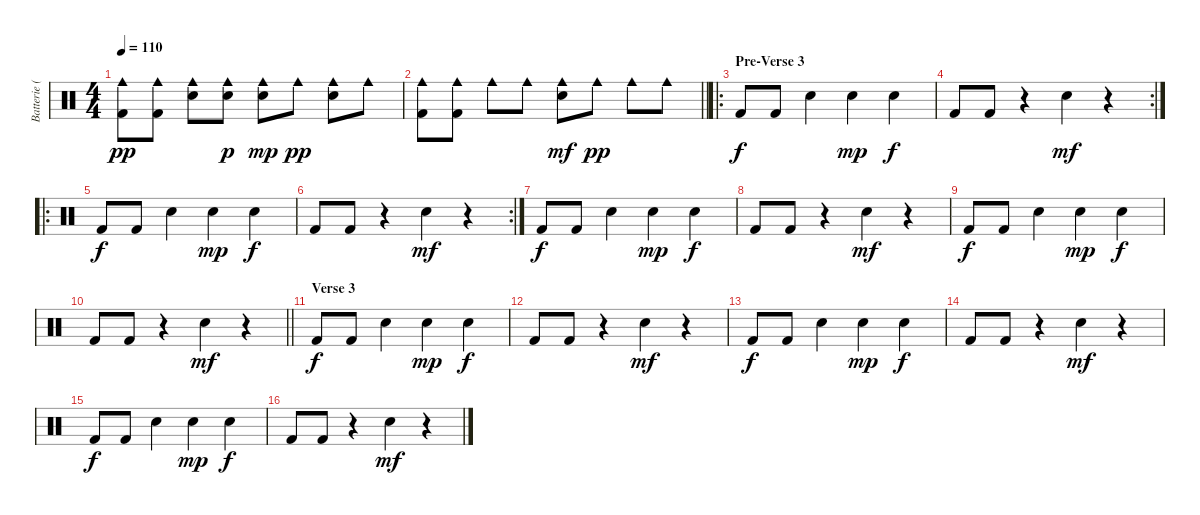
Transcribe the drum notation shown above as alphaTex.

\track ("Batterie (Fanny)" "Batterie (") {instrument percussion}
\staff {score}
\articulation defaults
\ts (4 4)
\tempo 110
\clef neutral
\ks c
("Cowbell medium (hit)" "Kick (hit) 2").8{dy pp} ("Cowbell medium (hit)" "Kick (hit) 2").8 ("Cowbell medium (hit)" "Snare (hit) 2").8 ("Cowbell medium (hit)" "Snare (hit) 2").8{dy p} ("Cowbell medium (hit)" "Snare (hit) 2").8{dy mp} "Cowbell medium (hit)".8{dy pp} ("Cowbell medium (hit)" "Snare (hit) 2").8 "Cowbell medium (hit)".8 |
\barLineRight lightlight
("Cowbell medium (hit)" "Kick (hit) 2").8 ("Cowbell medium (hit)" "Kick (hit) 2").8 "Cowbell medium (hit)".8 "Cowbell medium (hit)".8 ("Cowbell medium (hit)" "Snare (hit) 2").8{dy mf} "Cowbell medium (hit)".8{dy pp} "Cowbell medium (hit)".8 "Cowbell medium (hit)".8 |
\ro
\section ("" "Pre-Verse 3")
"Kick (hit) 2".8{dy f} "Kick (hit) 2".8 "Snare (hit) 2".4 "Snare (hit) 2".4{dy mp} "Snare (hit) 2".4{dy f} |
\rc 2 "Kick (hit) 2".8 "Kick (hit) 2".8
r.4 "Snare (hit) 2".4{dy mf} r.4 |
\ro "Kick (hit) 2".8{dy f} "Kick (hit) 2".8 "Snare (hit) 2".4 "Snare (hit) 2".4{dy mp} "Snare (hit) 2".4{dy f}
|
\rc 2 "Kick (hit) 2".8 "Kick (hit) 2".8
r.4 "Snare (hit) 2".4{dy mf} r.4 |
"Kick (hit) 2".8{dy f} "Kick (hit) 2".8 "Snare (hit) 2".4 "Snare (hit) 2".4{dy mp} "Snare (hit) 2".4{dy f} |
"Kick (hit) 2".8 "Kick (hit) 2".8 r.4 "Snare (hit) 2".4{dy mf} r.4 |
"Kick (hit) 2".8{dy f} "Kick (hit) 2".8 "Snare (hit) 2".4 "Snare (hit) 2".4{dy mp} "Snare (hit) 2".4{dy f} |
\barLineRight lightlight "Kick (hit) 2".8 "Kick (hit) 2".8
r.4 "Snare (hit) 2".4{dy mf} r.4 |
\section ("" "Verse 3")
"Kick (hit) 2".8{dy f} "Kick (hit) 2".8 "Snare (hit) 2".4 "Snare (hit) 2".4{dy mp} "Snare (hit) 2".4{dy f} |
"Kick (hit) 2".8 "Kick (hit) 2".8 r.4 "Snare (hit) 2".4{dy mf} r.4 |
"Kick (hit) 2".8{dy f} "Kick (hit) 2".8 "Snare (hit) 2".4 "Snare (hit) 2".4{dy mp} "Snare (hit) 2".4{dy f} |
"Kick (hit) 2".8 "Kick (hit) 2".8 r.4 "Snare (hit) 2".4{dy mf} r.4 |
"Kick (hit) 2".8{dy f} "Kick (hit) 2".8 "Snare (hit) 2".4 "Snare (hit) 2".4{dy mp} "Snare (hit) 2".4{dy f} |
"Kick (hit) 2".8 "Kick (hit) 2".8 r.4 "Snare (hit) 2".4{dy mf} r.4
